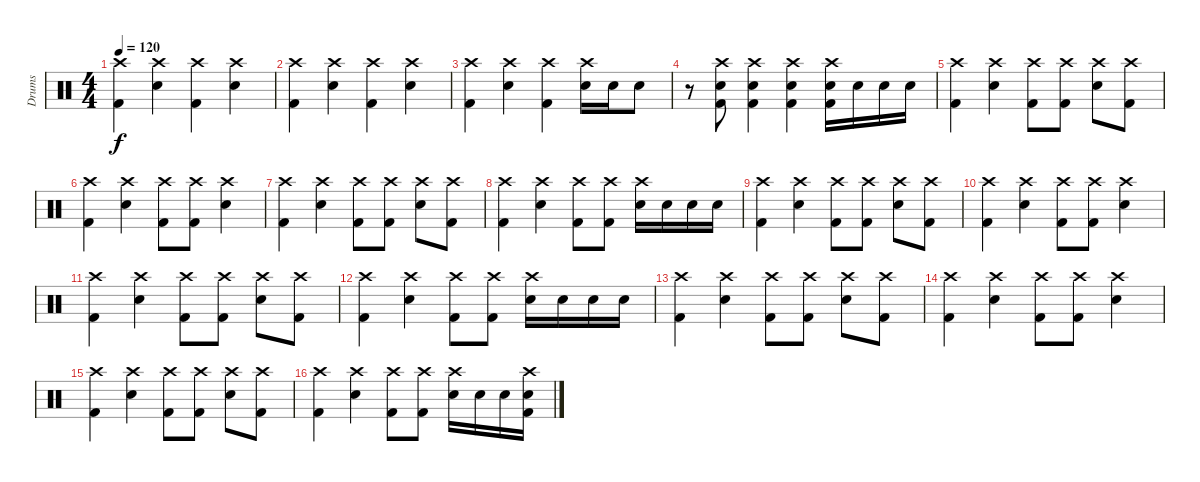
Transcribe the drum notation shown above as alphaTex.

\track ("Drums" "Drums") {instrument percussion}
\staff {score}
\articulation defaults
\ts (4 4)
\tempo 120
\clef neutral
\ks c
("Crash high (hit)" "Kick (hit) 2").4{dy f} ("Crash high (hit)" "Electric Snare (hit)").4 ("Crash high (hit)" "Kick (hit) 2").4 ("Crash high (hit)" "Electric Snare (hit)").4 |
("Crash high (hit)" "Kick (hit) 2").4 ("Crash high (hit)" "Electric Snare (hit)").4 ("Crash high (hit)" "Kick (hit) 2").4 ("Crash high (hit)" "Electric Snare (hit)").4 |
("Crash high (hit)" "Kick (hit) 2").4 ("Crash high (hit)" "Electric Snare (hit)").4 ("Crash high (hit)" "Kick (hit) 2").4 ("Crash high (hit)" "Electric Snare (hit)").16 "Electric Snare (hit)".16 "Electric Snare (hit)".8 |
r.8 ("Crash high (hit)" "Electric Snare (hit)" "Kick (hit) 2").8 ("Crash high (hit)" "Electric Snare (hit)" "Kick (hit) 2").4 ("Crash high (hit)" "Electric Snare (hit)" "Kick (hit) 2").4 ("Crash high (hit)" "Electric Snare (hit)" "Kick (hit) 2").16 "Electric Snare (hit)".16 "Electric Snare (hit)".16 "Electric Snare (hit)".16 |
("Crash high (hit)" "Kick (hit) 2").4 ("Crash high (hit)" "Electric Snare (hit)").4 ("Crash high (hit)" "Kick (hit) 2").8 ("Crash high (hit)" "Kick (hit) 2").8 ("Crash high (hit)" "Electric Snare (hit)").8 ("Crash high (hit)" "Kick (hit) 2").8 |
("Crash high (hit)" "Kick (hit) 2").4 ("Crash high (hit)" "Electric Snare (hit)").4 ("Crash high (hit)" "Kick (hit) 2").8 ("Crash high (hit)" "Kick (hit) 2").8 ("Crash high (hit)" "Electric Snare (hit)").4 |
("Crash high (hit)" "Kick (hit) 2").4 ("Crash high (hit)" "Electric Snare (hit)").4 ("Crash high (hit)" "Kick (hit) 2").8 ("Crash high (hit)" "Kick (hit) 2").8 ("Crash high (hit)" "Electric Snare (hit)").8 ("Crash high (hit)" "Kick (hit) 2").8 |
("Crash high (hit)" "Kick (hit) 2").4 ("Crash high (hit)" "Electric Snare (hit)").4 ("Crash high (hit)" "Kick (hit) 2").8 ("Crash high (hit)" "Kick (hit) 2").8 ("Crash high (hit)" "Electric Snare (hit)").16 "Electric Snare (hit)".16 "Electric Snare (hit)".16 "Electric Snare (hit)".16 |
("Crash high (hit)" "Kick (hit) 2").4 ("Crash high (hit)" "Electric Snare (hit)").4 ("Crash high (hit)" "Kick (hit) 2").8 ("Crash high (hit)" "Kick (hit) 2").8 ("Crash high (hit)" "Electric Snare (hit)").8 ("Crash high (hit)" "Kick (hit) 2").8 |
("Crash high (hit)" "Kick (hit) 2").4 ("Crash high (hit)" "Electric Snare (hit)").4 ("Crash high (hit)" "Kick (hit) 2").8 ("Crash high (hit)" "Kick (hit) 2").8 ("Crash high (hit)" "Electric Snare (hit)").4 |
("Crash high (hit)" "Kick (hit) 2").4 ("Crash high (hit)" "Electric Snare (hit)").4 ("Crash high (hit)" "Kick (hit) 2").8 ("Crash high (hit)" "Kick (hit) 2").8 ("Crash high (hit)" "Electric Snare (hit)").8 ("Crash high (hit)" "Kick (hit) 2").8 |
("Crash high (hit)" "Kick (hit) 2").4 ("Crash high (hit)" "Electric Snare (hit)").4 ("Crash high (hit)" "Kick (hit) 2").8 ("Crash high (hit)" "Kick (hit) 2").8 ("Crash high (hit)" "Electric Snare (hit)").16 "Electric Snare (hit)".16 "Electric Snare (hit)".16 "Electric Snare (hit)".16 |
("Crash high (hit)" "Kick (hit) 2").4 ("Crash high (hit)" "Electric Snare (hit)").4 ("Crash high (hit)" "Kick (hit) 2").8 ("Crash high (hit)" "Kick (hit) 2").8 ("Crash high (hit)" "Electric Snare (hit)").8 ("Crash high (hit)" "Kick (hit) 2").8 |
("Crash high (hit)" "Kick (hit) 2").4 ("Crash high (hit)" "Electric Snare (hit)").4 ("Crash high (hit)" "Kick (hit) 2").8 ("Crash high (hit)" "Kick (hit) 2").8 ("Crash high (hit)" "Electric Snare (hit)").4 |
("Crash high (hit)" "Kick (hit) 2").4 ("Crash high (hit)" "Electric Snare (hit)").4 ("Crash high (hit)" "Kick (hit) 2").8 ("Crash high (hit)" "Kick (hit) 2").8 ("Crash high (hit)" "Electric Snare (hit)").8 ("Crash high (hit)" "Kick (hit) 2").8 |
("Crash high (hit)" "Kick (hit) 2").4 ("Crash high (hit)" "Electric Snare (hit)").4 ("Crash high (hit)" "Kick (hit) 2").8 ("Crash high (hit)" "Kick (hit) 2").8 ("Crash high (hit)" "Electric Snare (hit)").16 "Electric Snare (hit)".16 "Electric Snare (hit)".16 ("Crash high (hit)" "Electric Snare (hit)" "Kick (hit) 2").16
